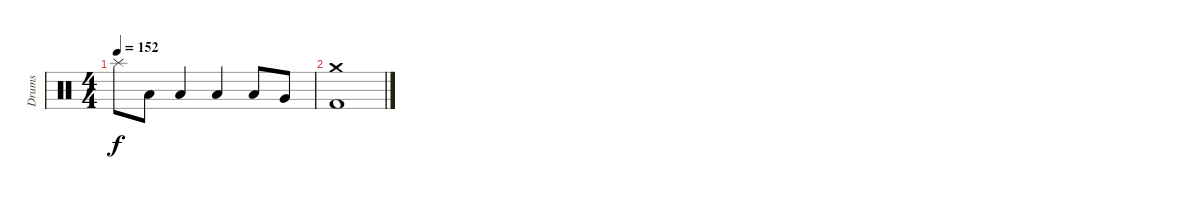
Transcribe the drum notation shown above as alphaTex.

\track ("Drums" "Drums") {instrument percussion}
\staff {score}
\articulation defaults
\ts (4 4)
\tempo 152
\clef neutral
\ks c "Splash (hit)".8{dy f} "Low Tom (hit)".8 "Low Tom (hit)".4 "Low Tom (hit)".4 "Low Tom (hit)".8 "Very Low Tom (hit)".8
|
("Crash medium (hit)" "Kick (hit) 2").1
